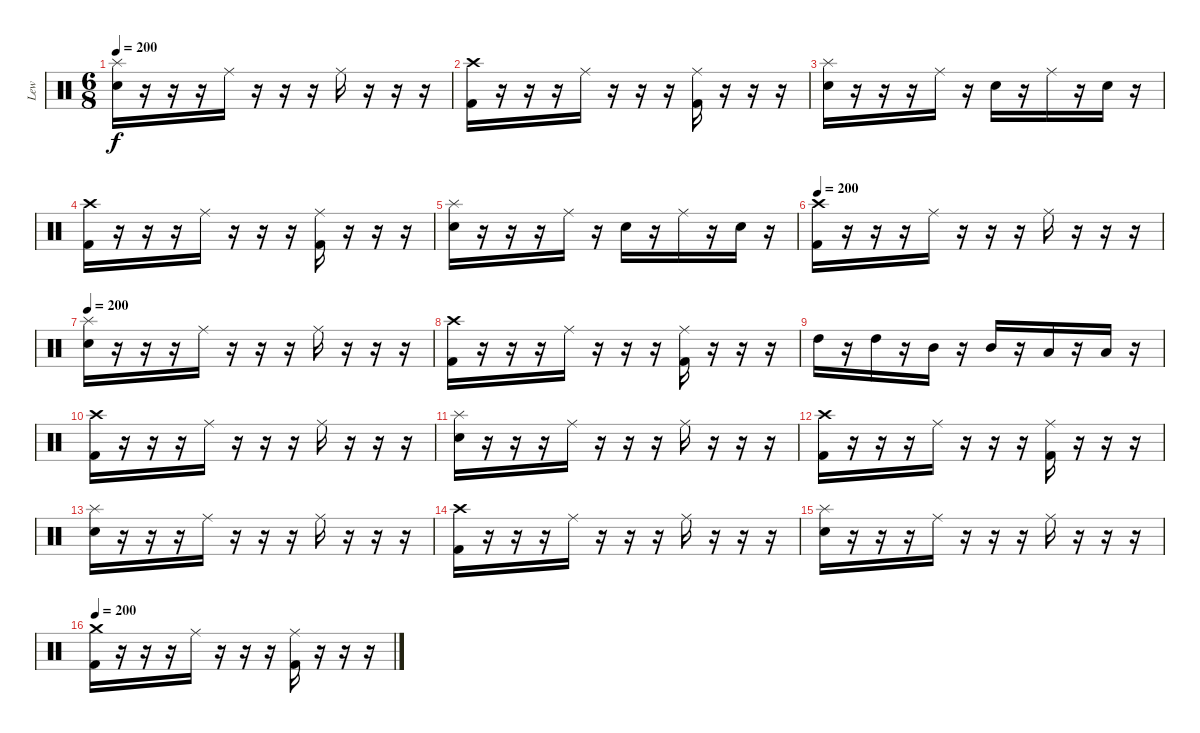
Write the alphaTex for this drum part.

\track ("Lew" "Lew") {instrument percussion}
\staff {score}
\articulation defaults
\ts (6 8)
\tempo 200
\clef neutral
\ks c
("Splash (hit)" "Electric Snare (hit)").16{dy f} r.16 r.16 r.16 "Ride (middle)".16 r.16 r.16 r.16 "Ride (middle)".16 r.16 r.16 r.16 |
("Crash high (hit)" "Kick (hit) 2").16 r.16 r.16 r.16 "Ride (middle)".16 r.16 r.16 r.16 ("Ride (middle)" "Kick (hit) 2").16 r.16 r.16 r.16 |
("Splash (hit)" "Electric Snare (hit)").16 r.16 r.16 r.16 "Ride (middle)".16 r.16 "Electric Snare (hit)".16 r.16 "Ride (middle)".16 r.16 "Electric Snare (hit)".16 r.16 |
("Crash high (hit)" "Kick (hit) 2").16 r.16 r.16 r.16 "Ride (middle)".16 r.16 r.16 r.16 ("Ride (middle)" "Kick (hit) 2").16 r.16 r.16 r.16 |
("Splash (hit)" "Electric Snare (hit)").16 r.16 r.16 r.16 "Ride (middle)".16 r.16 "Electric Snare (hit)".16 r.16 "Ride (middle)".16 r.16 "Electric Snare (hit)".16 r.16 |
\tempo 200
("Crash high (hit)" "Kick (hit) 2").16 r.16 r.16 r.16 "Ride (middle)".16 r.16 r.16 r.16 "Ride (middle)".16 r.16 r.16 r.16 |
\tempo 200
("Splash (hit)" "Electric Snare (hit)").16 r.16 r.16 r.16 "Ride (middle)".16 r.16 r.16 r.16 "Ride (middle)".16 r.16 r.16 r.16 |
("Crash high (hit)" "Kick (hit) 2").16 r.16 r.16 r.16 "Ride (middle)".16 r.16 r.16 r.16 ("Ride (middle)" "Kick (hit) 2").16 r.16 r.16 r.16 |
"High Tom (hit)".16 r.16 "High Tom (hit)".16 r.16 "Mid Tom (hit)".16 r.16 "Mid Tom (hit)".16 r.16 "Low Tom (hit)".16 r.16 "Low Tom (hit)".16 r.16 |
("Crash high (hit)" "Kick (hit) 2").16 r.16 r.16 r.16 "Ride (middle)".16 r.16 r.16 r.16 "Ride (middle)".16 r.16 r.16 r.16 |
("Splash (hit)" "Electric Snare (hit)").16 r.16 r.16 r.16 "Ride (middle)".16 r.16 r.16 r.16 "Ride (middle)".16 r.16 r.16 r.16 |
("Crash high (hit)" "Kick (hit) 2").16 r.16 r.16 r.16 "Ride (middle)".16 r.16 r.16 r.16 ("Ride (middle)" "Kick (hit) 2").16 r.16 r.16 r.16 |
("Splash (hit)" "Electric Snare (hit)").16 r.16 r.16 r.16 "Ride (middle)".16 r.16 r.16 r.16 "Ride (middle)".16 r.16 r.16 r.16 |
("Crash high (hit)" "Kick (hit) 2").16 r.16 r.16 r.16 "Ride (middle)".16 r.16 r.16 r.16 "Ride (middle)".16 r.16 r.16 r.16 |
("Splash (hit)" "Electric Snare (hit)").16 r.16 r.16 r.16 "Ride (middle)".16 r.16 r.16 r.16 "Ride (middle)".16 r.16 r.16 r.16 |
\tempo 200
("Crash medium (hit)" "Kick (hit) 2").16 r.16 r.16 r.16 "Ride (middle)".16 r.16 r.16 r.16 ("Ride (middle)" "Kick (hit) 2").16 r.16 r.16 r.16
